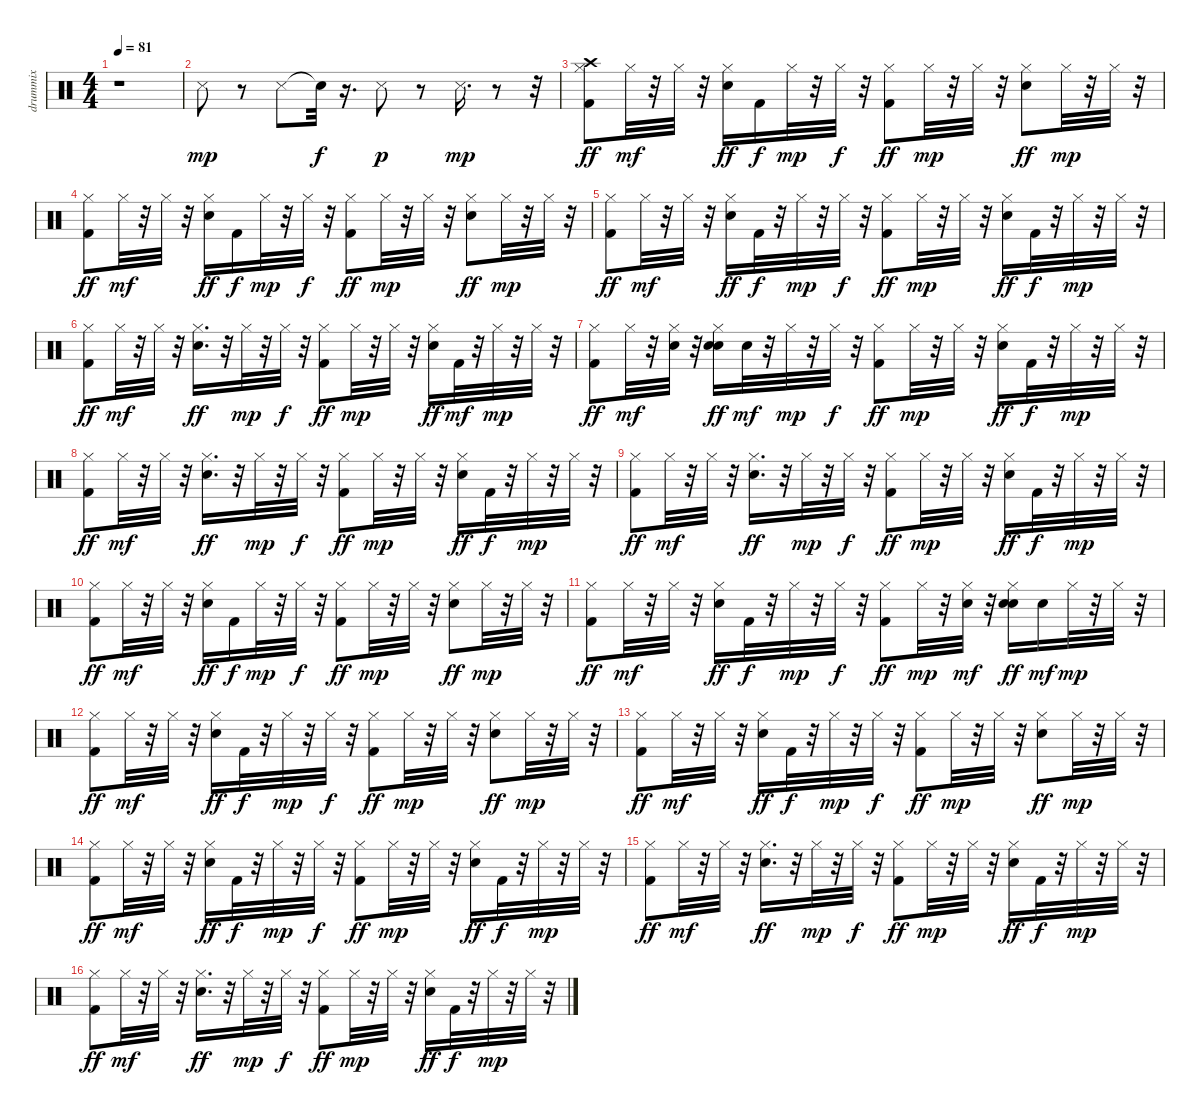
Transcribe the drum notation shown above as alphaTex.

\track ("drummix " "drummix ") {instrument percussion}
\staff {score}
\articulation defaults
\ts (4 4)
\tempo 81
\clef neutral
\ks c
r.1{dy mp} |
"Snare (side stick) 3".8 r.8 "Snare (side stick) 3".8 "Snare (hit)"{t}.32{dy f} r.16{d} "Snare (side stick) 3".8{dy p} r.8 "Snare (side stick) 3".16{d dy mp} r.8 r.32 |
("Kick (hit) 2" "Hi-Hat (closed)" "Crash high (hit)").8{dy ff} "Hi-Hat (closed)".32{dy mf} r.32 "Hi-Hat (closed)".32 r.32 ("Snare (hit) 2" "Hi-Hat (closed)").16{dy ff} "Kick (hit) 2".16{dy f} "Hi-Hat (closed)".32{dy mp} r.32 "Hi-Hat (closed)".32{dy f} r.32 ("Kick (hit) 2" "Hi-Hat (closed)").8{dy ff} "Hi-Hat (closed)".32{dy mp} r.32 "Hi-Hat (closed)".32 r.32 ("Snare (hit) 2" "Hi-Hat (closed)").8{dy ff} "Hi-Hat (closed)".32{dy mp} r.32 "Hi-Hat (closed)".32 r.32 |
("Kick (hit) 2" "Hi-Hat (closed)").8{dy ff} "Hi-Hat (closed)".32{dy mf} r.32 "Hi-Hat (closed)".32 r.32 ("Snare (hit) 2" "Hi-Hat (closed)").16{dy ff} "Kick (hit) 2".16{dy f} "Hi-Hat (closed)".32{dy mp} r.32 "Hi-Hat (closed)".32{dy f} r.32 ("Kick (hit) 2" "Hi-Hat (closed)").8{dy ff} "Hi-Hat (closed)".32{dy mp} r.32 "Hi-Hat (closed)".32 r.32 ("Snare (hit) 2" "Hi-Hat (closed)").8{dy ff} "Hi-Hat (closed)".32{dy mp} r.32 "Hi-Hat (closed)".32 r.32 |
("Kick (hit) 2" "Hi-Hat (closed)").8{dy ff} "Hi-Hat (closed)".32{dy mf} r.32 "Hi-Hat (closed)".32 r.32 ("Snare (hit) 2" "Hi-Hat (closed)").16{dy ff} "Kick (hit) 2".32{dy f} r.32 "Hi-Hat (closed)".32{dy mp} r.32 "Hi-Hat (closed)".32{dy f} r.32 ("Kick (hit) 2" "Hi-Hat (closed)").8{dy ff} "Hi-Hat (closed)".32{dy mp} r.32 "Hi-Hat (closed)".32 r.32 ("Snare (hit) 2" "Hi-Hat (closed)").16{dy ff} "Kick (hit) 2".32{dy f} r.32 "Hi-Hat (closed)".32{dy mp} r.32 "Hi-Hat (closed)".32 r.32 |
("Kick (hit) 2" "Hi-Hat (closed)").8{dy ff} "Hi-Hat (closed)".32{dy mf} r.32 "Hi-Hat (closed)".32 r.32 ("Snare (hit) 2" "Hi-Hat (closed)").16{d dy ff} r.32 "Hi-Hat (closed)".32{dy mp} r.32 "Hi-Hat (closed)".32{dy f} r.32 ("Kick (hit) 2" "Hi-Hat (closed)").8{dy ff} "Hi-Hat (closed)".32{dy mp} r.32 "Hi-Hat (closed)".32 r.32 ("Snare (hit) 2" "Hi-Hat (closed)").16{dy ff} "Kick (hit) 2".32{dy mf} r.32 "Hi-Hat (closed)".32{dy mp} r.32 "Hi-Hat (closed)".32 r.32 |
("Kick (hit) 2" "Hi-Hat (closed)").8{dy ff} "Hi-Hat (closed)".32{dy mf} r.32 ("Hand Clap (hit)" "Hi-Hat (closed)").32 r.32 ("Snare (hit) 2" "Hand Clap (hit)" "Hi-Hat (closed)").16{dy ff} "Hand Clap (hit)".32{dy mf} r.32 "Hi-Hat (closed)".32{dy mp} r.32 "Hi-Hat (closed)".32{dy f} r.32 ("Kick (hit) 2" "Hi-Hat (closed)").8{dy ff} "Hi-Hat (closed)".32{dy mp} r.32 "Hi-Hat (closed)".32 r.32 ("Snare (hit) 2" "Hi-Hat (closed)").16{dy ff} "Kick (hit) 2".32{dy f} r.32 "Hi-Hat (closed)".32{dy mp} r.32 "Hi-Hat (closed)".32 r.32 |
("Kick (hit) 2" "Hi-Hat (closed)").8{dy ff} "Hi-Hat (closed)".32{dy mf} r.32 "Hi-Hat (closed)".32 r.32 ("Snare (hit) 2" "Hi-Hat (closed)").16{d dy ff} r.32 "Hi-Hat (closed)".32{dy mp} r.32 "Hi-Hat (closed)".32{dy f} r.32 ("Kick (hit) 2" "Hi-Hat (closed)").8{dy ff} "Hi-Hat (closed)".32{dy mp} r.32 "Hi-Hat (closed)".32 r.32 ("Snare (hit) 2" "Hi-Hat (closed)").16{dy ff} "Kick (hit) 2".32{dy f} r.32 "Hi-Hat (closed)".32{dy mp} r.32 "Hi-Hat (closed)".32 r.32 |
("Kick (hit) 2" "Hi-Hat (closed)").8{dy ff} "Hi-Hat (closed)".32{dy mf} r.32 "Hi-Hat (closed)".32 r.32 ("Snare (hit) 2" "Hi-Hat (closed)").16{d dy ff} r.32 "Hi-Hat (closed)".32{dy mp} r.32 "Hi-Hat (closed)".32{dy f} r.32 ("Kick (hit) 2" "Hi-Hat (closed)").8{dy ff} "Hi-Hat (closed)".32{dy mp} r.32 "Hi-Hat (closed)".32 r.32 ("Snare (hit) 2" "Hi-Hat (closed)").16{dy ff} "Kick (hit) 2".32{dy f} r.32 "Hi-Hat (closed)".32{dy mp} r.32 "Hi-Hat (closed)".32 r.32 |
("Kick (hit) 2" "Hi-Hat (closed)").8{dy ff} "Hi-Hat (closed)".32{dy mf} r.32 "Hi-Hat (closed)".32 r.32 ("Snare (hit) 2" "Hi-Hat (closed)").16{dy ff} "Kick (hit) 2".16{dy f} "Hi-Hat (closed)".32{dy mp} r.32 "Hi-Hat (closed)".32{dy f} r.32 ("Kick (hit) 2" "Hi-Hat (closed)").8{dy ff} "Hi-Hat (closed)".32{dy mp} r.32 "Hi-Hat (closed)".32 r.32 ("Snare (hit) 2" "Hi-Hat (closed)").8{dy ff} "Hi-Hat (closed)".32{dy mp} r.32 "Hi-Hat (closed)".32 r.32 |
("Kick (hit) 2" "Hi-Hat (closed)").8{dy ff} "Hi-Hat (closed)".32{dy mf} r.32 "Hi-Hat (closed)".32 r.32 ("Snare (hit) 2" "Hi-Hat (closed)").16{dy ff} "Kick (hit) 2".32{dy f} r.32 "Hi-Hat (closed)".32{dy mp} r.32 "Hi-Hat (closed)".32{dy f} r.32 ("Kick (hit) 2" "Hi-Hat (closed)").8{dy ff} "Hi-Hat (closed)".32{dy mp} r.32 ("Hi-Hat (closed)" "Hand Clap (hit)").32{dy mf} r.32 ("Snare (hit) 2" "Hand Clap (hit)" "Hi-Hat (closed)").16{dy ff} "Hand Clap (hit)".16{dy mf} "Hi-Hat (closed)".32{dy mp} r.32 "Hi-Hat (closed)".32 r.32 |
("Kick (hit) 2" "Hi-Hat (closed)").8{dy ff} "Hi-Hat (closed)".32{dy mf} r.32 "Hi-Hat (closed)".32 r.32 ("Snare (hit) 2" "Hi-Hat (closed)").16{dy ff} "Kick (hit) 2".32{dy f} r.32 "Hi-Hat (closed)".32{dy mp} r.32 "Hi-Hat (closed)".32{dy f} r.32 ("Kick (hit) 2" "Hi-Hat (closed)").8{dy ff} "Hi-Hat (closed)".32{dy mp} r.32 "Hi-Hat (closed)".32 r.32 ("Snare (hit) 2" "Hi-Hat (closed)").8{dy ff} "Hi-Hat (closed)".32{dy mp} r.32 "Hi-Hat (closed)".32 r.32 |
("Kick (hit) 2" "Hi-Hat (closed)").8{dy ff} "Hi-Hat (closed)".32{dy mf} r.32 "Hi-Hat (closed)".32 r.32 ("Snare (hit) 2" "Hi-Hat (closed)").16{dy ff} "Kick (hit) 2".32{dy f} r.32 "Hi-Hat (closed)".32{dy mp} r.32 "Hi-Hat (closed)".32{dy f} r.32 ("Kick (hit) 2" "Hi-Hat (closed)").8{dy ff} "Hi-Hat (closed)".32{dy mp} r.32 "Hi-Hat (closed)".32 r.32 ("Snare (hit) 2" "Hi-Hat (closed)").8{dy ff} "Hi-Hat (closed)".32{dy mp} r.32 "Hi-Hat (closed)".32 r.32 |
("Kick (hit) 2" "Hi-Hat (closed)").8{dy ff} "Hi-Hat (closed)".32{dy mf} r.32 "Hi-Hat (closed)".32 r.32 ("Snare (hit) 2" "Hi-Hat (closed)").16{dy ff} "Kick (hit) 2".32{dy f} r.32 "Hi-Hat (closed)".32{dy mp} r.32 "Hi-Hat (closed)".32{dy f} r.32 ("Kick (hit) 2" "Hi-Hat (closed)").8{dy ff} "Hi-Hat (closed)".32{dy mp} r.32 "Hi-Hat (closed)".32 r.32 ("Snare (hit) 2" "Hi-Hat (closed)").16{dy ff} "Kick (hit) 2".32{dy f} r.32 "Hi-Hat (closed)".32{dy mp} r.32 "Hi-Hat (closed)".32 r.32 |
("Kick (hit) 2" "Hi-Hat (closed)").8{dy ff} "Hi-Hat (closed)".32{dy mf} r.32 "Hi-Hat (closed)".32 r.32 ("Snare (hit) 2" "Hi-Hat (closed)").16{d dy ff} r.32 "Hi-Hat (closed)".32{dy mp} r.32 "Hi-Hat (closed)".32{dy f} r.32 ("Kick (hit) 2" "Hi-Hat (closed)").8{dy ff} "Hi-Hat (closed)".32{dy mp} r.32 "Hi-Hat (closed)".32 r.32 ("Snare (hit) 2" "Hi-Hat (closed)").16{dy ff} "Kick (hit) 2".32{dy f} r.32 "Hi-Hat (closed)".32{dy mp} r.32 "Hi-Hat (closed)".32 r.32 |
("Kick (hit) 2" "Hi-Hat (closed)").8{dy ff} "Hi-Hat (closed)".32{dy mf} r.32 "Hi-Hat (closed)".32 r.32 ("Snare (hit) 2" "Hi-Hat (closed)").16{d dy ff} r.32 "Hi-Hat (closed)".32{dy mp} r.32 "Hi-Hat (closed)".32{dy f} r.32 ("Kick (hit) 2" "Hi-Hat (closed)").8{dy ff} "Hi-Hat (closed)".32{dy mp} r.32 "Hi-Hat (closed)".32 r.32 ("Snare (hit) 2" "Hi-Hat (closed)").16{dy ff} "Kick (hit) 2".32{dy f} r.32 "Hi-Hat (closed)".32{dy mp} r.32 "Hi-Hat (closed)".32 r.32
